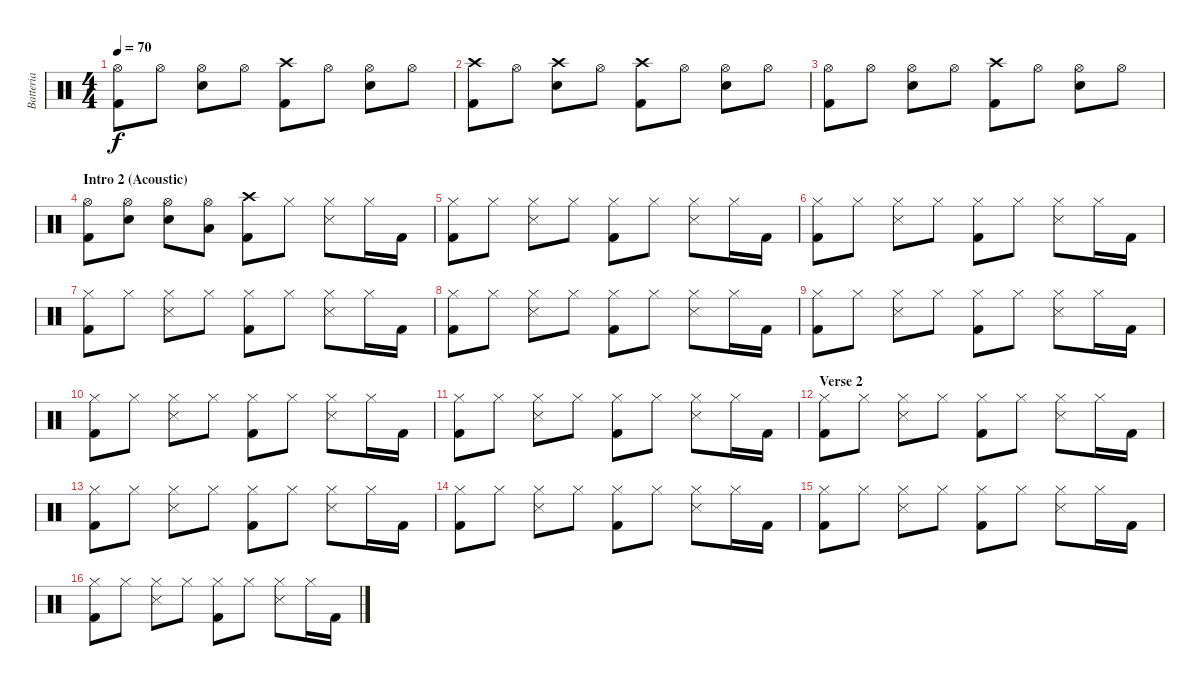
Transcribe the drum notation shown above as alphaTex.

\track ("Batteria" "Batteria") {instrument percussion}
\staff {score}
\articulation defaults
\ts (4 4)
\tempo 70
\clef neutral
\ks c
("Kick (hit) 2" "Hi-Hat (open)").8{dy f} "Hi-Hat (open)".8 ("Electric Snare (hit)" "Hi-Hat (open)").8 "Hi-Hat (open)".8 ("Kick (hit) 2" "Crash high (hit)").8 "Hi-Hat (open)".8 ("Electric Snare (hit)" "Hi-Hat (open)").8 "Hi-Hat (open)".8 |
("Kick (hit) 2" "Crash high (hit)").8 "Hi-Hat (open)".8 ("Electric Snare (hit)" "Crash high (hit)").8 "Hi-Hat (open)".8 ("Kick (hit) 2" "Crash high (hit)").8 "Hi-Hat (open)".8 ("Electric Snare (hit)" "Hi-Hat (open)").8 "Hi-Hat (open)".8 |
("Kick (hit) 2" "Hi-Hat (open)").8 "Hi-Hat (open)".8 ("Electric Snare (hit)" "Hi-Hat (open)").8 "Hi-Hat (open)".8 ("Kick (hit) 2" "Crash high (hit)").8 "Hi-Hat (open)".8 ("Electric Snare (hit)" "Hi-Hat (open)").8 "Hi-Hat (open)".8 |
\section ("" "Intro 2 (Acoustic)")
("Kick (hit) 2" "Hi-Hat (open)").8 ("Electric Snare (hit)" "Hi-Hat (open)").8 ("Electric Snare (hit)" "Hi-Hat (open)").8 ("Low Tom (hit)" "Hi-Hat (open)").8 ("Kick (hit) 2" "Crash high (hit)").8 "Hi-Hat (closed)".8 ("Snare (side stick) 3" "Hi-Hat (closed)").8 "Hi-Hat (closed)".16 "Kick (hit) 2".16 |
("Kick (hit) 2" "Hi-Hat (closed)").8 "Hi-Hat (closed)".8 ("Snare (side stick) 3" "Hi-Hat (closed)").8 "Hi-Hat (closed)".8 ("Kick (hit) 2" "Hi-Hat (closed)").8 "Hi-Hat (closed)".8 ("Snare (side stick) 3" "Hi-Hat (closed)").8 "Hi-Hat (closed)".16 "Kick (hit) 2".16 |
("Kick (hit) 2" "Hi-Hat (closed)").8 "Hi-Hat (closed)".8 ("Snare (side stick) 3" "Hi-Hat (closed)").8 "Hi-Hat (closed)".8 ("Kick (hit) 2" "Hi-Hat (closed)").8 "Hi-Hat (closed)".8 ("Snare (side stick) 3" "Hi-Hat (closed)").8 "Hi-Hat (closed)".16 "Kick (hit) 2".16 |
("Kick (hit) 2" "Hi-Hat (closed)").8 "Hi-Hat (closed)".8 ("Snare (side stick) 3" "Hi-Hat (closed)").8 "Hi-Hat (closed)".8 ("Kick (hit) 2" "Hi-Hat (closed)").8 "Hi-Hat (closed)".8 ("Snare (side stick) 3" "Hi-Hat (closed)").8 "Hi-Hat (closed)".16 "Kick (hit) 2".16 |
("Kick (hit) 2" "Hi-Hat (closed)").8 "Hi-Hat (closed)".8 ("Snare (side stick) 3" "Hi-Hat (closed)").8 "Hi-Hat (closed)".8 ("Kick (hit) 2" "Hi-Hat (closed)").8 "Hi-Hat (closed)".8 ("Snare (side stick) 3" "Hi-Hat (closed)").8 "Hi-Hat (closed)".16 "Kick (hit) 2".16 |
("Kick (hit) 2" "Hi-Hat (closed)").8 "Hi-Hat (closed)".8 ("Snare (side stick) 3" "Hi-Hat (closed)").8 "Hi-Hat (closed)".8 ("Kick (hit) 2" "Hi-Hat (closed)").8 "Hi-Hat (closed)".8 ("Snare (side stick) 3" "Hi-Hat (closed)").8 "Hi-Hat (closed)".16 "Kick (hit) 2".16 |
("Kick (hit) 2" "Hi-Hat (closed)").8 "Hi-Hat (closed)".8 ("Snare (side stick) 3" "Hi-Hat (closed)").8 "Hi-Hat (closed)".8 ("Kick (hit) 2" "Hi-Hat (closed)").8 "Hi-Hat (closed)".8 ("Snare (side stick) 3" "Hi-Hat (closed)").8 "Hi-Hat (closed)".16 "Kick (hit) 2".16 |
("Kick (hit) 2" "Hi-Hat (closed)").8 "Hi-Hat (closed)".8 ("Snare (side stick) 3" "Hi-Hat (closed)").8 "Hi-Hat (closed)".8 ("Kick (hit) 2" "Hi-Hat (closed)").8 "Hi-Hat (closed)".8 ("Snare (side stick) 3" "Hi-Hat (closed)").8 "Hi-Hat (closed)".16 "Kick (hit) 2".16 |
\section ("" "Verse 2")
("Kick (hit) 2" "Hi-Hat (closed)").8 "Hi-Hat (closed)".8 ("Snare (side stick) 3" "Hi-Hat (closed)").8 "Hi-Hat (closed)".8 ("Kick (hit) 2" "Hi-Hat (closed)").8 "Hi-Hat (closed)".8 ("Snare (side stick) 3" "Hi-Hat (closed)").8 "Hi-Hat (closed)".16 "Kick (hit) 2".16 |
("Kick (hit) 2" "Hi-Hat (closed)").8 "Hi-Hat (closed)".8 ("Snare (side stick) 3" "Hi-Hat (closed)").8 "Hi-Hat (closed)".8 ("Kick (hit) 2" "Hi-Hat (closed)").8 "Hi-Hat (closed)".8 ("Snare (side stick) 3" "Hi-Hat (closed)").8 "Hi-Hat (closed)".16 "Kick (hit) 2".16 |
("Kick (hit) 2" "Hi-Hat (closed)").8 "Hi-Hat (closed)".8 ("Snare (side stick) 3" "Hi-Hat (closed)").8 "Hi-Hat (closed)".8 ("Kick (hit) 2" "Hi-Hat (closed)").8 "Hi-Hat (closed)".8 ("Snare (side stick) 3" "Hi-Hat (closed)").8 "Hi-Hat (closed)".16 "Kick (hit) 2".16 |
("Kick (hit) 2" "Hi-Hat (closed)").8 "Hi-Hat (closed)".8 ("Snare (side stick) 3" "Hi-Hat (closed)").8 "Hi-Hat (closed)".8 ("Kick (hit) 2" "Hi-Hat (closed)").8 "Hi-Hat (closed)".8 ("Snare (side stick) 3" "Hi-Hat (closed)").8 "Hi-Hat (closed)".16 "Kick (hit) 2".16 |
("Kick (hit) 2" "Hi-Hat (closed)").8 "Hi-Hat (closed)".8 ("Snare (side stick) 3" "Hi-Hat (closed)").8 "Hi-Hat (closed)".8 ("Kick (hit) 2" "Hi-Hat (closed)").8 "Hi-Hat (closed)".8 ("Snare (side stick) 3" "Hi-Hat (closed)").8 "Hi-Hat (closed)".16 "Kick (hit) 2".16
